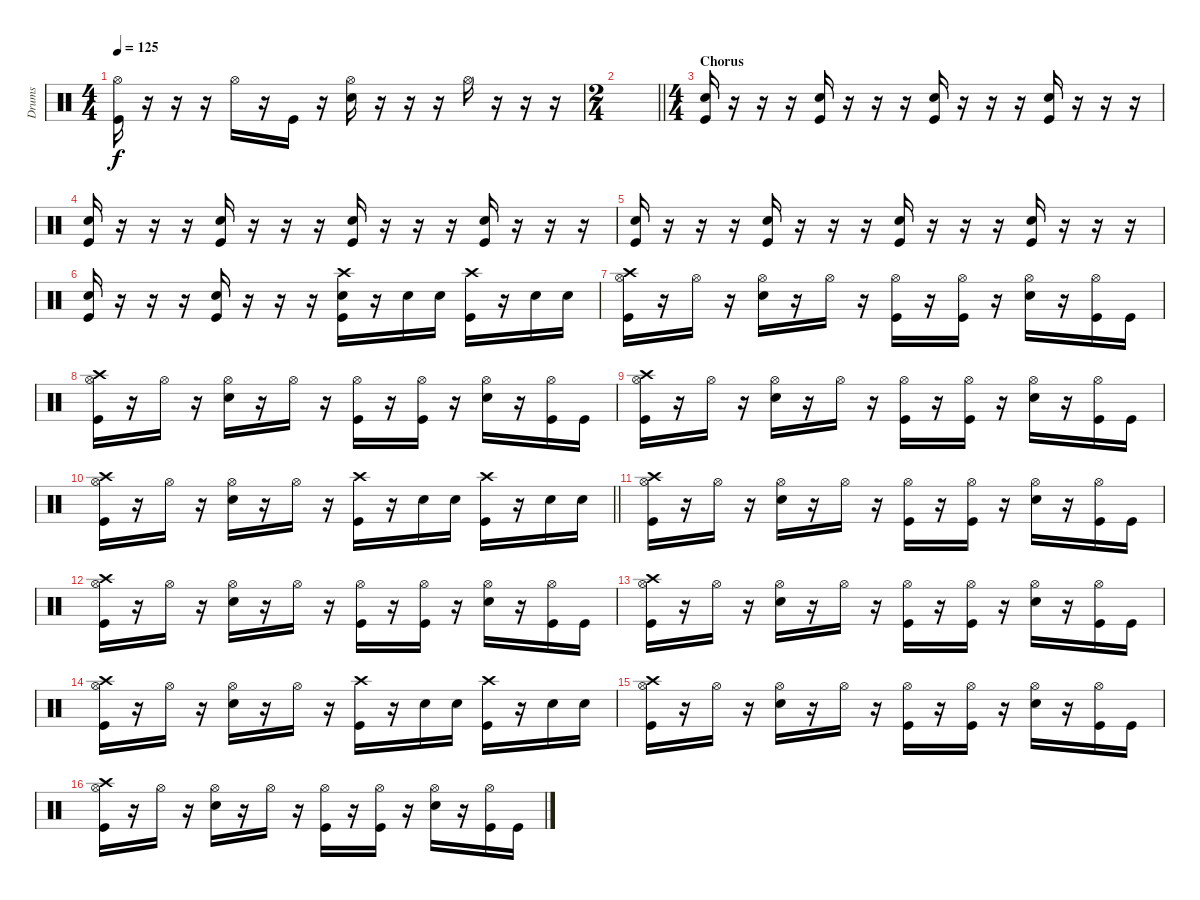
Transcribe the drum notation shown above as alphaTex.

\track ("Drums" "Drums") {instrument percussion}
\staff {score}
\articulation defaults
\ts (4 4)
\tempo 125
\clef neutral
\ks c
("Hi-Hat (open)" "Kick (hit)").16{dy f} r.16 r.16 r.16 "Hi-Hat (open)".16 r.16 "Kick (hit)".16 r.16 ("Hi-Hat (open)" "Snare (hit) 2").16 r.16 r.16 r.16 "Hi-Hat (open)".16 r.16 r.16 r.16 |
\ts (2 4)
\barLineRight lightlight
|
\ts (4 4)
\section ("" "Chorus")
("Snare (hit) 2" "Kick (hit)").16 r.16 r.16 r.16 ("Snare (hit) 2" "Kick (hit)").16 r.16 r.16 r.16 ("Snare (hit) 2" "Kick (hit)").16 r.16 r.16 r.16 ("Snare (hit) 2" "Kick (hit)").16 r.16 r.16 r.16 |
("Snare (hit) 2" "Kick (hit)").16 r.16 r.16 r.16 ("Snare (hit) 2" "Kick (hit)").16 r.16 r.16 r.16 ("Snare (hit) 2" "Kick (hit)").16 r.16 r.16 r.16 ("Snare (hit) 2" "Kick (hit)").16 r.16 r.16 r.16 |
("Snare (hit) 2" "Kick (hit)").16 r.16 r.16 r.16 ("Snare (hit) 2" "Kick (hit)").16 r.16 r.16 r.16 ("Snare (hit) 2" "Kick (hit)").16 r.16 r.16 r.16 ("Snare (hit) 2" "Kick (hit)").16 r.16 r.16 r.16 |
("Snare (hit) 2" "Kick (hit)").16 r.16 r.16 r.16 ("Snare (hit) 2" "Kick (hit)").16 r.16 r.16 r.16 ("Crash high (hit)" "Snare (hit) 2" "Kick (hit)").16 r.16 "Snare (hit) 2".16 "Snare (hit) 2".16 ("Crash high (hit)" "Kick (hit)").16 r.16 "Snare (hit) 2".16 "Snare (hit) 2".16 |
("Crash high (hit)" "Hi-Hat (open)" "Kick (hit)").16 r.16 "Hi-Hat (open)".16 r.16 ("Hi-Hat (open)" "Snare (hit) 2").16 r.16 "Hi-Hat (open)".16 r.16 ("Hi-Hat (open)" "Kick (hit)").16 r.16 ("Hi-Hat (open)" "Kick (hit)").16 r.16 ("Hi-Hat (open)" "Snare (hit) 2").16 r.16 ("Hi-Hat (open)" "Kick (hit)").16 "Kick (hit)".16 |
("Crash high (hit)" "Hi-Hat (open)" "Kick (hit)").16 r.16 "Hi-Hat (open)".16 r.16 ("Hi-Hat (open)" "Snare (hit) 2").16 r.16 "Hi-Hat (open)".16 r.16 ("Hi-Hat (open)" "Kick (hit)").16 r.16 ("Hi-Hat (open)" "Kick (hit)").16 r.16 ("Hi-Hat (open)" "Snare (hit) 2").16 r.16 ("Hi-Hat (open)" "Kick (hit)").16 "Kick (hit)".16 |
("Crash high (hit)" "Hi-Hat (open)" "Kick (hit)").16 r.16 "Hi-Hat (open)".16 r.16 ("Hi-Hat (open)" "Snare (hit) 2").16 r.16 "Hi-Hat (open)".16 r.16 ("Hi-Hat (open)" "Kick (hit)").16 r.16 ("Hi-Hat (open)" "Kick (hit)").16 r.16 ("Hi-Hat (open)" "Snare (hit) 2").16 r.16 ("Hi-Hat (open)" "Kick (hit)").16 "Kick (hit)".16 |
\barLineRight lightlight
("Crash high (hit)" "Hi-Hat (open)" "Kick (hit)").16 r.16 "Hi-Hat (open)".16 r.16 ("Hi-Hat (open)" "Snare (hit) 2").16 r.16 "Hi-Hat (open)".16 r.16 ("Crash high (hit)" "Kick (hit)").16 r.16 "Snare (hit) 2".16 "Snare (hit) 2".16 ("Crash high (hit)" "Kick (hit)").16 r.16 "Snare (hit) 2".16 "Snare (hit) 2".16 |
("Crash high (hit)" "Hi-Hat (open)" "Kick (hit)").16 r.16 "Hi-Hat (open)".16 r.16 ("Hi-Hat (open)" "Snare (hit) 2").16 r.16 "Hi-Hat (open)".16 r.16 ("Hi-Hat (open)" "Kick (hit)").16 r.16 ("Hi-Hat (open)" "Kick (hit)").16 r.16 ("Hi-Hat (open)" "Snare (hit) 2").16 r.16 ("Hi-Hat (open)" "Kick (hit)").16 "Kick (hit)".16 |
("Crash high (hit)" "Hi-Hat (open)" "Kick (hit)").16 r.16 "Hi-Hat (open)".16 r.16 ("Hi-Hat (open)" "Snare (hit) 2").16 r.16 "Hi-Hat (open)".16 r.16 ("Hi-Hat (open)" "Kick (hit)").16 r.16 ("Hi-Hat (open)" "Kick (hit)").16 r.16 ("Hi-Hat (open)" "Snare (hit) 2").16 r.16 ("Hi-Hat (open)" "Kick (hit)").16 "Kick (hit)".16 |
("Crash high (hit)" "Hi-Hat (open)" "Kick (hit)").16 r.16 "Hi-Hat (open)".16 r.16 ("Hi-Hat (open)" "Snare (hit) 2").16 r.16 "Hi-Hat (open)".16 r.16 ("Hi-Hat (open)" "Kick (hit)").16 r.16 ("Hi-Hat (open)" "Kick (hit)").16 r.16 ("Hi-Hat (open)" "Snare (hit) 2").16 r.16 ("Hi-Hat (open)" "Kick (hit)").16 "Kick (hit)".16 |
("Crash high (hit)" "Hi-Hat (open)" "Kick (hit)").16 r.16 "Hi-Hat (open)".16 r.16 ("Hi-Hat (open)" "Snare (hit) 2").16 r.16 "Hi-Hat (open)".16 r.16 ("Crash high (hit)" "Kick (hit)").16 r.16 "Snare (hit) 2".16 "Snare (hit) 2".16 ("Crash high (hit)" "Kick (hit)").16 r.16 "Snare (hit) 2".16 "Snare (hit) 2".16 |
("Crash high (hit)" "Hi-Hat (open)" "Kick (hit)").16 r.16 "Hi-Hat (open)".16 r.16 ("Hi-Hat (open)" "Snare (hit) 2").16 r.16 "Hi-Hat (open)".16 r.16 ("Hi-Hat (open)" "Kick (hit)").16 r.16 ("Hi-Hat (open)" "Kick (hit)").16 r.16 ("Hi-Hat (open)" "Snare (hit) 2").16 r.16 ("Hi-Hat (open)" "Kick (hit)").16 "Kick (hit)".16 |
("Crash high (hit)" "Hi-Hat (open)" "Kick (hit)").16 r.16 "Hi-Hat (open)".16 r.16 ("Hi-Hat (open)" "Snare (hit) 2").16 r.16 "Hi-Hat (open)".16 r.16 ("Hi-Hat (open)" "Kick (hit)").16 r.16 ("Hi-Hat (open)" "Kick (hit)").16 r.16 ("Hi-Hat (open)" "Snare (hit) 2").16 r.16 ("Hi-Hat (open)" "Kick (hit)").16 "Kick (hit)".16
